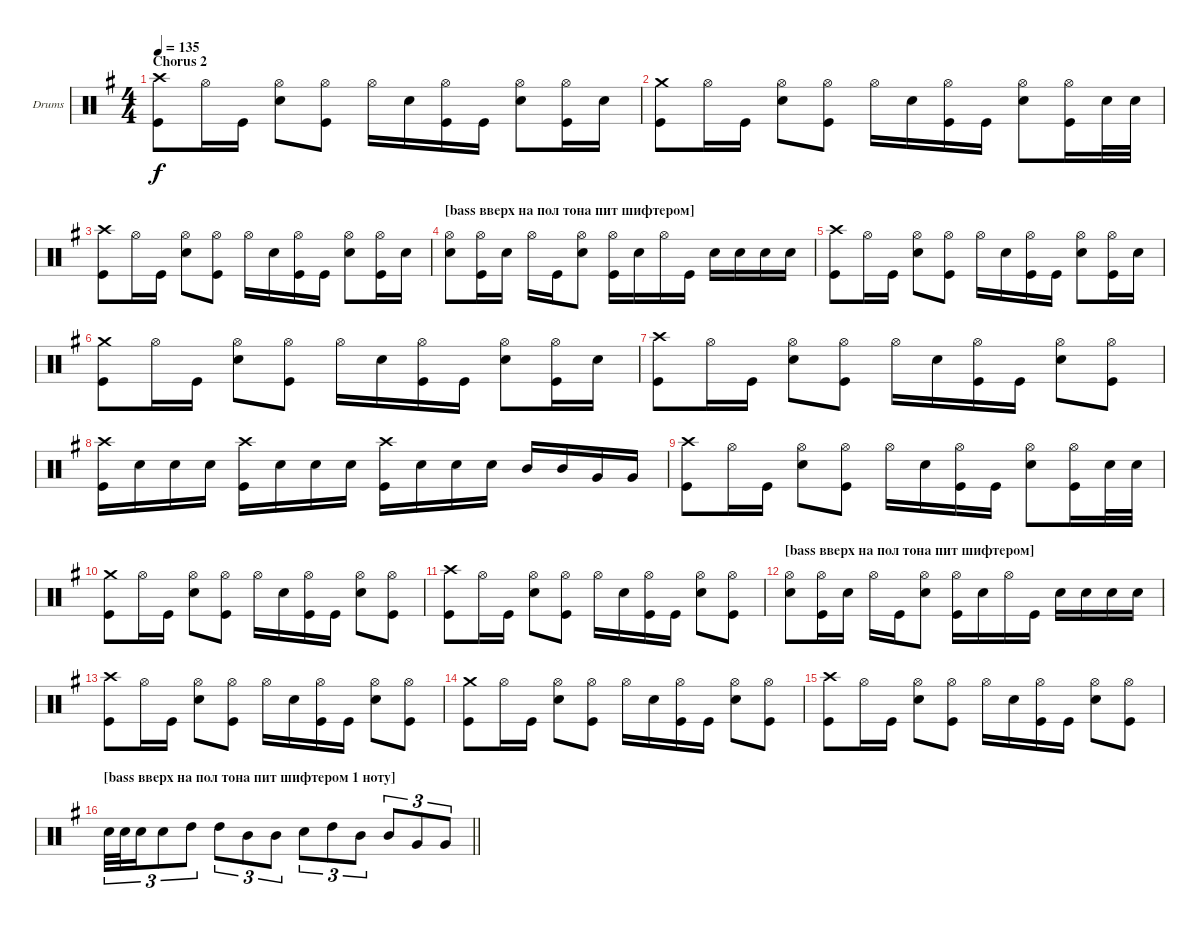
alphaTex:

\bracketExtendMode groupsimilarinstruments
\firstSystemTrackNameOrientation horizontal
\otherSystemsTrackNameOrientation horizontal
\track ("drums (Anton Zulganov)" "Drums") {instrument percussion}
\staff {score}
\articulation defaults
\ts (4 4)
\section ("" "Chorus 2")
\tempo 135
\clef neutral
\ks eminor
("Kick (hit)" "Crash high (hit)").8{dy f} "Hi-Hat (open)".16 "Kick (hit)".16 ("Snare (hit) 2" "Hi-Hat (open)").8 ("Kick (hit)" "Hi-Hat (open)").8 "Hi-Hat (open)".16 "Snare (hit) 2".16 ("Kick (hit)" "Hi-Hat (open)").16 "Kick (hit)".16 ("Snare (hit) 2" "Hi-Hat (open)").8 ("Kick (hit)" "Hi-Hat (open)").16 "Snare (hit) 2".16 |
("Kick (hit)" "Crash medium (hit)").8 "Hi-Hat (open)".16 "Kick (hit)".16 ("Snare (hit) 2" "Hi-Hat (open)").8 ("Kick (hit)" "Hi-Hat (open)").8 "Hi-Hat (open)".16 "Snare (hit) 2".16 ("Kick (hit)" "Hi-Hat (open)").16 "Kick (hit)".16 ("Snare (hit) 2" "Hi-Hat (open)").8 ("Kick (hit)" "Hi-Hat (open)").16 "Snare (hit) 2".32 "Snare (hit) 2".32 |
("Kick (hit)" "Crash high (hit)").8 "Hi-Hat (open)".16 "Kick (hit)".16 ("Snare (hit) 2" "Hi-Hat (open)").8 ("Kick (hit)" "Hi-Hat (open)").8 "Hi-Hat (open)".16 "Snare (hit) 2".16 ("Kick (hit)" "Hi-Hat (open)").16 "Kick (hit)".16 ("Snare (hit) 2" "Hi-Hat (open)").8 ("Kick (hit)" "Hi-Hat (open)").16 "Snare (hit) 2".16 |
\section ("" "[bass вверх на пол тона пит шифтером]")
("Snare (hit) 2" "Hi-Hat (open)").8 ("Hi-Hat (open)" "Kick (hit)").16 "Snare (hit) 2".16 "Hi-Hat (open)".16 "Kick (hit)".16 ("Hi-Hat (open)" "Snare (hit) 2").8 ("Hi-Hat (open)" "Kick (hit)").16 "Snare (hit) 2".16 "Hi-Hat (open)".16 "Kick (hit)".16 "Snare (hit) 2".16 "Snare (hit) 2".16 "Snare (hit) 2".16 "Snare (hit) 2".16 |
("Kick (hit)" "Crash high (hit)").8 "Hi-Hat (open)".16 "Kick (hit)".16 ("Snare (hit) 2" "Hi-Hat (open)").8 ("Kick (hit)" "Hi-Hat (open)").8 "Hi-Hat (open)".16 "Snare (hit) 2".16 ("Kick (hit)" "Hi-Hat (open)").16 "Kick (hit)".16 ("Snare (hit) 2" "Hi-Hat (open)").8 ("Kick (hit)" "Hi-Hat (open)").16 "Snare (hit) 2".16 |
("Kick (hit)" "Crash medium (hit)").8 "Hi-Hat (open)".16 "Kick (hit)".16 ("Snare (hit) 2" "Hi-Hat (open)").8 ("Kick (hit)" "Hi-Hat (open)").8 "Hi-Hat (open)".16 "Snare (hit) 2".16 ("Kick (hit)" "Hi-Hat (open)").16 "Kick (hit)".16 ("Snare (hit) 2" "Hi-Hat (open)").8 ("Kick (hit)" "Hi-Hat (open)").16 "Snare (hit) 2".16 |
("Kick (hit)" "Crash high (hit)").8 "Hi-Hat (open)".16 "Kick (hit)".16 ("Snare (hit) 2" "Hi-Hat (open)").8 ("Kick (hit)" "Hi-Hat (open)").8 "Hi-Hat (open)".16 "Snare (hit) 2".16 ("Kick (hit)" "Hi-Hat (open)").16 "Kick (hit)".16 ("Snare (hit) 2" "Hi-Hat (open)").8 ("Kick (hit)" "Hi-Hat (open)").8 |
("Kick (hit)" "Crash high (hit)").16 "Snare (hit) 2".16 "Snare (hit) 2".16 "Snare (hit) 2".16 ("Kick (hit)" "Crash high (hit)").16 "Snare (hit) 2".16 "Snare (hit) 2".16 "Snare (hit) 2".16 ("Kick (hit)" "Crash high (hit)").16 "Snare (hit) 2".16 "Snare (hit) 2".16 "Snare (hit) 2".16 "Mid Tom (hit)".16 "Mid Tom (hit)".16 "Very Low Tom (hit)".16 "Very Low Tom (hit)".16 |
("Kick (hit)" "Crash high (hit)").8 "Hi-Hat (open)".16 "Kick (hit)".16 ("Snare (hit) 2" "Hi-Hat (open)").8 ("Kick (hit)" "Hi-Hat (open)").8 "Hi-Hat (open)".16 "Snare (hit) 2".16 ("Kick (hit)" "Hi-Hat (open)").16 "Kick (hit)".16 ("Snare (hit) 2" "Hi-Hat (open)").8 ("Kick (hit)" "Hi-Hat (open)").16 "Snare (hit) 2".32 "Snare (hit) 2".32 |
("Kick (hit)" "Crash medium (hit)").8 "Hi-Hat (open)".16 "Kick (hit)".16 ("Snare (hit) 2" "Hi-Hat (open)").8 ("Kick (hit)" "Hi-Hat (open)").8 "Hi-Hat (open)".16 "Snare (hit) 2".16 ("Kick (hit)" "Hi-Hat (open)").16 "Kick (hit)".16 ("Snare (hit) 2" "Hi-Hat (open)").8 ("Kick (hit)" "Hi-Hat (open)").8 |
("Kick (hit)" "Crash high (hit)").8 "Hi-Hat (open)".16 "Kick (hit)".16 ("Snare (hit) 2" "Hi-Hat (open)").8 ("Kick (hit)" "Hi-Hat (open)").8 "Hi-Hat (open)".16 "Snare (hit) 2".16 ("Kick (hit)" "Hi-Hat (open)").16 "Kick (hit)".16 ("Snare (hit) 2" "Hi-Hat (open)").8 ("Kick (hit)" "Hi-Hat (open)").8 |
\section ("" "[bass вверх на пол тона пит шифтером]")
("Snare (hit) 2" "Hi-Hat (open)").8 ("Hi-Hat (open)" "Kick (hit)").16 "Snare (hit) 2".16 "Hi-Hat (open)".16 "Kick (hit)".16 ("Hi-Hat (open)" "Snare (hit) 2").8 ("Hi-Hat (open)" "Kick (hit)").16 "Snare (hit) 2".16 "Hi-Hat (open)".16 "Kick (hit)".16 "Snare (hit) 2".16 "Snare (hit) 2".16 "Snare (hit) 2".16 "Snare (hit) 2".16 |
("Kick (hit)" "Crash high (hit)").8 "Hi-Hat (open)".16 "Kick (hit)".16 ("Snare (hit) 2" "Hi-Hat (open)").8 ("Kick (hit)" "Hi-Hat (open)").8 "Hi-Hat (open)".16 "Snare (hit) 2".16 ("Kick (hit)" "Hi-Hat (open)").16 "Kick (hit)".16 ("Snare (hit) 2" "Hi-Hat (open)").8 ("Kick (hit)" "Hi-Hat (open)").8 |
("Kick (hit)" "Crash medium (hit)").8 "Hi-Hat (open)".16 "Kick (hit)".16 ("Snare (hit) 2" "Hi-Hat (open)").8 ("Kick (hit)" "Hi-Hat (open)").8 "Hi-Hat (open)".16 "Snare (hit) 2".16 ("Kick (hit)" "Hi-Hat (open)").16 "Kick (hit)".16 ("Snare (hit) 2" "Hi-Hat (open)").8 ("Kick (hit)" "Hi-Hat (open)").8 |
("Kick (hit)" "Crash high (hit)").8 "Hi-Hat (open)".16 "Kick (hit)".16 ("Snare (hit) 2" "Hi-Hat (open)").8 ("Kick (hit)" "Hi-Hat (open)").8 "Hi-Hat (open)".16 "Snare (hit) 2".16 ("Kick (hit)" "Hi-Hat (open)").16 "Kick (hit)".16 ("Snare (hit) 2" "Hi-Hat (open)").8 ("Kick (hit)" "Hi-Hat (open)").8 |
\section ("" "[bass вверх на пол тона пит шифтером 1 ноту]")
\barLineRight lightlight "Snare (hit) 2".32{tu (3 2)} "Snare (hit) 2".32{tu (3 2)} "Snare (hit) 2".16{tu (3 2)} "Snare (hit) 2".8{tu (3 2)} "High Tom (hit)".8{tu (3 2)} "High Tom (hit)".8{tu (3 2)} "Mid Tom (hit)".8{tu (3 2)} "Mid Tom (hit)".8{tu (3 2)} "Snare (hit) 2".8{tu (3 2)} "High Tom (hit)".8{tu (3 2)} "Mid Tom (hit)".8{tu (3 2)} "Mid Tom (hit)".8{tu (3 2)} "Very Low Tom (hit)".8{tu (3 2)} "Very Low Tom (hit)".8{tu (3 2)}
